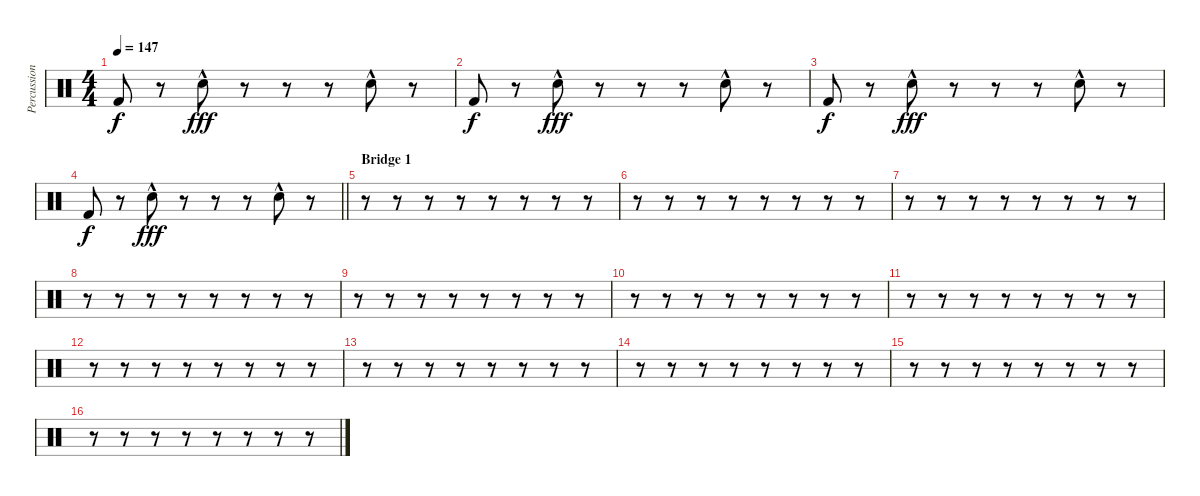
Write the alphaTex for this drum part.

\track ("Percussion" "Percussion") {instrument percussion}
\staff {score}
\articulation defaults
\ts (4 4)
\tempo 147
\clef neutral
\ks c "Kick (hit) 2".8{dy f}
r.8 "Snare (hit) 2"{hac}.8{dy fff} r.8 r.8 r.8 "Snare (hit) 2"{hac}.8 r.8 |
"Kick (hit) 2".8{dy f} r.8 "Snare (hit) 2"{hac}.8{dy fff} r.8 r.8 r.8 "Snare (hit) 2"{hac}.8 r.8 |
"Kick (hit) 2".8{dy f} r.8 "Snare (hit) 2"{hac}.8{dy fff} r.8 r.8 r.8 "Snare (hit) 2"{hac}.8 r.8 |
\barLineRight lightlight "Kick (hit) 2".8{dy f}
r.8 "Snare (hit) 2"{hac}.8{dy fff} r.8 r.8 r.8 "Snare (hit) 2"{hac}.8 r.8 |
\section ("" "Bridge 1")
r.8 r.8 r.8 r.8 r.8 r.8 r.8 r.8 |
r.8 r.8 r.8 r.8 r.8 r.8 r.8 r.8 |
r.8 r.8 r.8 r.8 r.8 r.8 r.8 r.8 |
r.8 r.8 r.8 r.8 r.8 r.8 r.8 r.8 |
r.8 r.8 r.8 r.8 r.8 r.8 r.8 r.8 |
r.8 r.8 r.8 r.8 r.8 r.8 r.8 r.8 |
r.8 r.8 r.8 r.8 r.8 r.8 r.8 r.8 |
r.8 r.8 r.8 r.8 r.8 r.8 r.8 r.8 |
r.8 r.8 r.8 r.8 r.8 r.8 r.8 r.8 |
r.8 r.8 r.8 r.8 r.8 r.8 r.8 r.8 |
r.8 r.8 r.8 r.8 r.8 r.8 r.8 r.8 |
r.8 r.8 r.8 r.8 r.8 r.8 r.8 r.8
